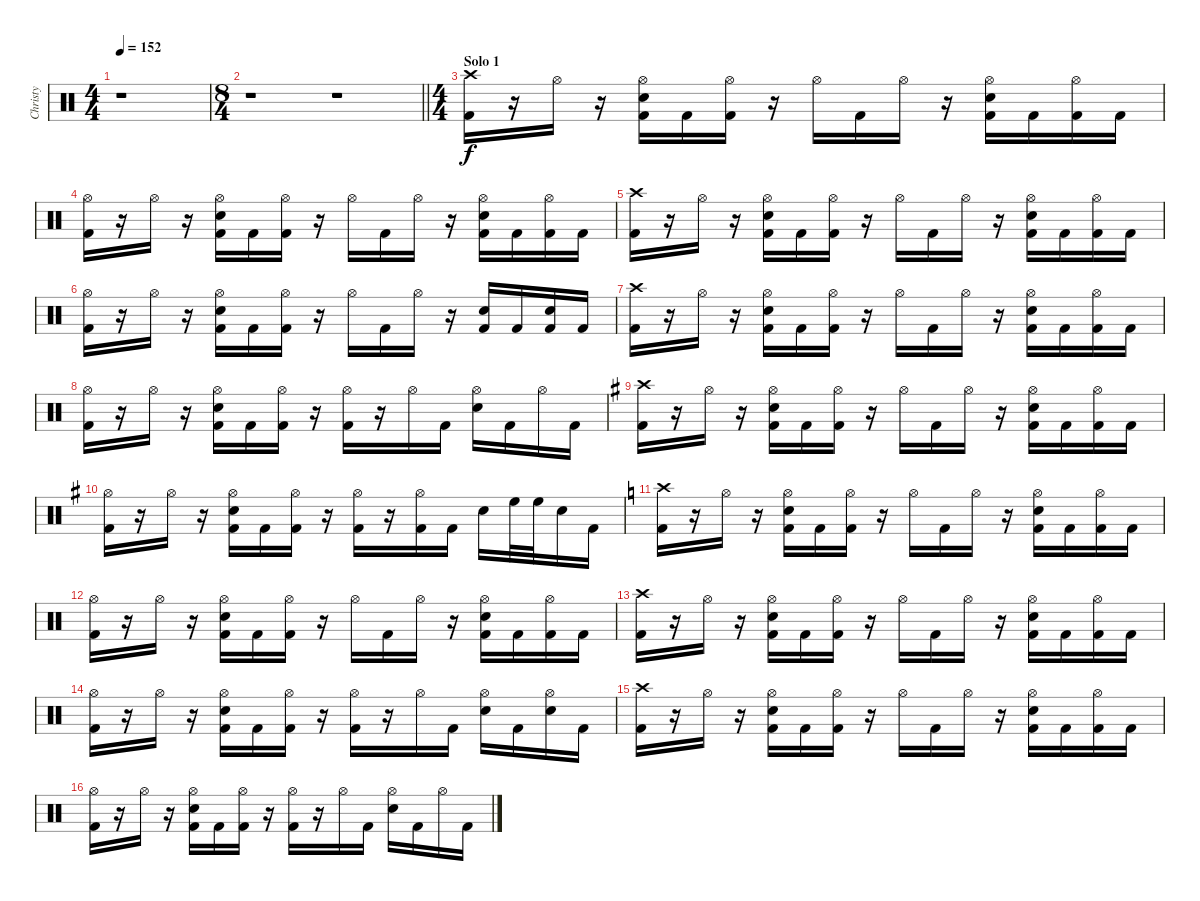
\track ("Christy" "Christy") {instrument percussion}
\staff {score}
\articulation defaults
\ts (4 4)
\section ("" "")
\tempo 152
\clef neutral
\ks c
r.1{dy f} |
\ts (8 4)
\barLineRight lightlight
r.1 r.1 |
\ts (4 4)
\section ("" "Solo 1")
("Crash high (hit)" "Kick (hit) 2").16 r.16 "Hi-Hat (open)".16 r.16 ("Hi-Hat (open)" "Snare (hit) 2" "Kick (hit) 2").16 "Kick (hit) 2".16 ("Hi-Hat (open)" "Kick (hit) 2").16 r.16 "Hi-Hat (open)".16 "Kick (hit) 2".16 "Hi-Hat (open)".16 r.16 ("Hi-Hat (open)" "Snare (hit) 2" "Kick (hit) 2").16 "Kick (hit) 2".16 ("Hi-Hat (open)" "Kick (hit) 2").16 "Kick (hit) 2".16 |
("Hi-Hat (open)" "Kick (hit) 2").16 r.16 "Hi-Hat (open)".16 r.16 ("Hi-Hat (open)" "Snare (hit) 2" "Kick (hit) 2").16 "Kick (hit) 2".16 ("Hi-Hat (open)" "Kick (hit) 2").16 r.16 "Hi-Hat (open)".16 "Kick (hit) 2".16 "Hi-Hat (open)".16 r.16 ("Hi-Hat (open)" "Snare (hit) 2" "Kick (hit) 2").16 "Kick (hit) 2".16 ("Hi-Hat (open)" "Kick (hit) 2").16 "Kick (hit) 2".16 |
("Crash high (hit)" "Kick (hit) 2").16 r.16 "Hi-Hat (open)".16 r.16 ("Hi-Hat (open)" "Snare (hit) 2" "Kick (hit) 2").16 "Kick (hit) 2".16 ("Hi-Hat (open)" "Kick (hit) 2").16 r.16 "Hi-Hat (open)".16 "Kick (hit) 2".16 "Hi-Hat (open)".16 r.16 ("Hi-Hat (open)" "Snare (hit) 2" "Kick (hit) 2").16 "Kick (hit) 2".16 ("Hi-Hat (open)" "Kick (hit) 2").16 "Kick (hit) 2".16 |
("Hi-Hat (open)" "Kick (hit) 2").16 r.16 "Hi-Hat (open)".16 r.16 ("Hi-Hat (open)" "Snare (hit) 2" "Kick (hit) 2").16 "Kick (hit) 2".16 ("Hi-Hat (open)" "Kick (hit) 2").16 r.16 "Hi-Hat (open)".16 "Kick (hit) 2".16 "Hi-Hat (open)".16 r.16 ("Snare (hit) 2" "Kick (hit) 2").16 "Kick (hit) 2".16 ("Snare (hit) 2" "Kick (hit) 2").16 "Kick (hit) 2".16 |
("Crash high (hit)" "Kick (hit) 2").16 r.16 "Hi-Hat (open)".16 r.16 ("Hi-Hat (open)" "Snare (hit) 2" "Kick (hit) 2").16 "Kick (hit) 2".16 ("Hi-Hat (open)" "Kick (hit) 2").16 r.16 "Hi-Hat (open)".16 "Kick (hit) 2".16 "Hi-Hat (open)".16 r.16 ("Hi-Hat (open)" "Snare (hit) 2" "Kick (hit) 2").16 "Kick (hit) 2".16 ("Hi-Hat (open)" "Kick (hit) 2").16 "Kick (hit) 2".16 |
("Hi-Hat (open)" "Kick (hit) 2").16 r.16 "Hi-Hat (open)".16 r.16 ("Hi-Hat (open)" "Snare (hit) 2" "Kick (hit) 2").16 "Kick (hit) 2".16 ("Hi-Hat (open)" "Kick (hit) 2").16 r.16 ("Hi-Hat (open)" "Kick (hit) 2").16 r.16 "Hi-Hat (open)".16 "Kick (hit) 2".16 ("Hi-Hat (open)" "Snare (hit) 2").16 "Kick (hit) 2".16 "Hi-Hat (open)".16 "Kick (hit) 2".16 |
\ks g
("Crash high (hit)" "Kick (hit) 2").16 r.16 "Hi-Hat (open)".16 r.16 ("Hi-Hat (open)" "Snare (hit) 2" "Kick (hit) 2").16 "Kick (hit) 2".16 ("Hi-Hat (open)" "Kick (hit) 2").16 r.16 "Hi-Hat (open)".16 "Kick (hit) 2".16 "Hi-Hat (open)".16 r.16 ("Hi-Hat (open)" "Snare (hit) 2" "Kick (hit) 2").16 "Kick (hit) 2".16 ("Hi-Hat (open)" "Kick (hit) 2").16 "Kick (hit) 2".16 |
("Hi-Hat (open)" "Kick (hit) 2").16 r.16 "Hi-Hat (open)".16 r.16 ("Hi-Hat (open)" "Snare (hit) 2" "Kick (hit) 2").16 "Kick (hit) 2".16 ("Hi-Hat (open)" "Kick (hit) 2").16 r.16 ("Hi-Hat (open)" "Kick (hit) 2").16 r.16 ("Hi-Hat (open)" "Kick (hit) 2").16 "Kick (hit) 2".16 "Snare (hit) 2".16 "High Floor Tom (hit)".32 "High Floor Tom (hit)".32 "Snare (hit) 2".16 "Kick (hit) 2".16 |
\ks c
("Crash high (hit)" "Kick (hit) 2").16 r.16 "Hi-Hat (open)".16 r.16 ("Hi-Hat (open)" "Snare (hit) 2" "Kick (hit) 2").16 "Kick (hit) 2".16 ("Hi-Hat (open)" "Kick (hit) 2").16 r.16 "Hi-Hat (open)".16 "Kick (hit) 2".16 "Hi-Hat (open)".16 r.16 ("Hi-Hat (open)" "Snare (hit) 2" "Kick (hit) 2").16 "Kick (hit) 2".16 ("Hi-Hat (open)" "Kick (hit) 2").16 "Kick (hit) 2".16 |
("Hi-Hat (open)" "Kick (hit) 2").16 r.16 "Hi-Hat (open)".16 r.16 ("Hi-Hat (open)" "Snare (hit) 2" "Kick (hit) 2").16 "Kick (hit) 2".16 ("Hi-Hat (open)" "Kick (hit) 2").16 r.16 "Hi-Hat (open)".16 "Kick (hit) 2".16 "Hi-Hat (open)".16 r.16 ("Hi-Hat (open)" "Snare (hit) 2" "Kick (hit) 2").16 "Kick (hit) 2".16 ("Hi-Hat (open)" "Kick (hit) 2").16 "Kick (hit) 2".16 |
("Crash high (hit)" "Kick (hit) 2").16 r.16 "Hi-Hat (open)".16 r.16 ("Hi-Hat (open)" "Snare (hit) 2" "Kick (hit) 2").16 "Kick (hit) 2".16 ("Hi-Hat (open)" "Kick (hit) 2").16 r.16 "Hi-Hat (open)".16 "Kick (hit) 2".16 "Hi-Hat (open)".16 r.16 ("Hi-Hat (open)" "Snare (hit) 2" "Kick (hit) 2").16 "Kick (hit) 2".16 ("Hi-Hat (open)" "Kick (hit) 2").16 "Kick (hit) 2".16 |
("Hi-Hat (open)" "Kick (hit) 2").16 r.16 "Hi-Hat (open)".16 r.16 ("Hi-Hat (open)" "Snare (hit) 2" "Kick (hit) 2").16 "Kick (hit) 2".16 ("Hi-Hat (open)" "Kick (hit) 2").16 r.16 ("Hi-Hat (open)" "Kick (hit) 2").16 r.16 "Hi-Hat (open)".16 "Kick (hit) 2".16 ("Hi-Hat (open)" "Snare (hit) 2").16 "Kick (hit) 2".16 ("Hi-Hat (open)" "Snare (hit) 2").16 "Kick (hit) 2".16 |
("Crash high (hit)" "Kick (hit) 2").16 r.16 "Hi-Hat (open)".16 r.16 ("Hi-Hat (open)" "Snare (hit) 2" "Kick (hit) 2").16 "Kick (hit) 2".16 ("Hi-Hat (open)" "Kick (hit) 2").16 r.16 "Hi-Hat (open)".16 "Kick (hit) 2".16 "Hi-Hat (open)".16 r.16 ("Hi-Hat (open)" "Snare (hit) 2" "Kick (hit) 2").16 "Kick (hit) 2".16 ("Hi-Hat (open)" "Kick (hit) 2").16 "Kick (hit) 2".16 |
("Hi-Hat (open)" "Kick (hit) 2").16 r.16 "Hi-Hat (open)".16 r.16 ("Hi-Hat (open)" "Snare (hit) 2" "Kick (hit) 2").16 "Kick (hit) 2".16 ("Hi-Hat (open)" "Kick (hit) 2").16 r.16 ("Hi-Hat (open)" "Kick (hit) 2").16 r.16 "Hi-Hat (open)".16 "Kick (hit) 2".16 ("Hi-Hat (open)" "Snare (hit) 2").16 "Kick (hit) 2".16 "Hi-Hat (open)".16 "Kick (hit) 2".16
